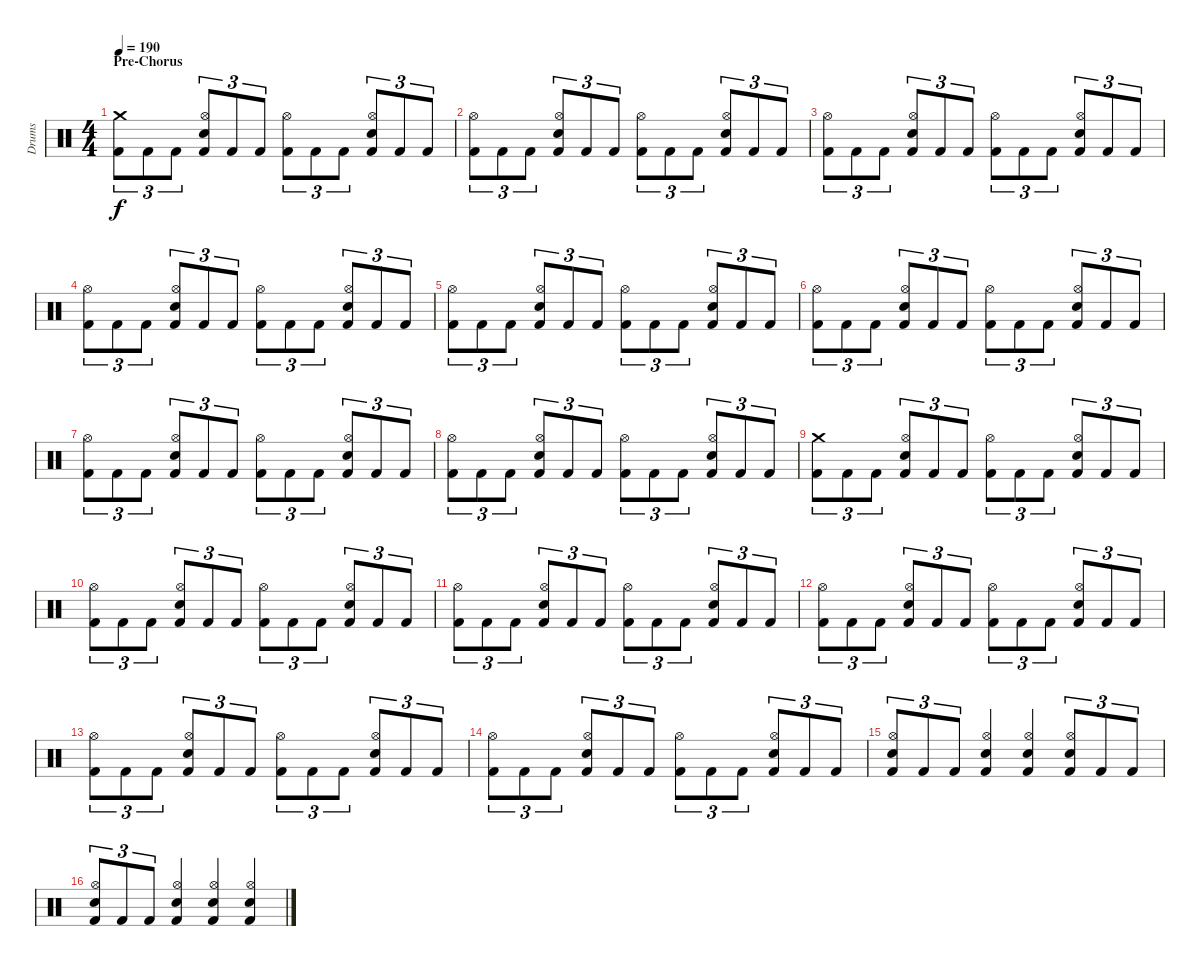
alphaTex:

\track ("Drums" "Drums") {instrument percussion}
\staff {score}
\articulation defaults
\ts (4 4)
\section ("" "Pre-Chorus")
\tempo 190
\clef neutral
\ks c
("Crash medium (hit)" "Kick (hit) 2").8{tu (3 2) dy f} "Kick (hit) 2".8{tu (3 2)} "Kick (hit) 2".8{tu (3 2)} ("Hi-Hat (open)" "Electric Snare (hit)" "Kick (hit) 2").8{tu (3 2)} "Kick (hit) 2".8{tu (3 2)} "Kick (hit) 2".8{tu (3 2)} ("Hi-Hat (open)" "Kick (hit) 2").8{tu (3 2)} "Kick (hit) 2".8{tu (3 2)} "Kick (hit) 2".8{tu (3 2)} ("Hi-Hat (open)" "Electric Snare (hit)" "Kick (hit) 2").8{tu (3 2)} "Kick (hit) 2".8{tu (3 2)} "Kick (hit) 2".8{tu (3 2)} |
("Hi-Hat (open)" "Kick (hit) 2").8{tu (3 2)} "Kick (hit) 2".8{tu (3 2)} "Kick (hit) 2".8{tu (3 2)} ("Hi-Hat (open)" "Electric Snare (hit)" "Kick (hit) 2").8{tu (3 2)} "Kick (hit) 2".8{tu (3 2)} "Kick (hit) 2".8{tu (3 2)} ("Hi-Hat (open)" "Kick (hit) 2").8{tu (3 2)} "Kick (hit) 2".8{tu (3 2)} "Kick (hit) 2".8{tu (3 2)} ("Hi-Hat (open)" "Electric Snare (hit)" "Kick (hit) 2").8{tu (3 2)} "Kick (hit) 2".8{tu (3 2)} "Kick (hit) 2".8{tu (3 2)} |
("Hi-Hat (open)" "Kick (hit) 2").8{tu (3 2)} "Kick (hit) 2".8{tu (3 2)} "Kick (hit) 2".8{tu (3 2)} ("Hi-Hat (open)" "Electric Snare (hit)" "Kick (hit) 2").8{tu (3 2)} "Kick (hit) 2".8{tu (3 2)} "Kick (hit) 2".8{tu (3 2)} ("Hi-Hat (open)" "Kick (hit) 2").8{tu (3 2)} "Kick (hit) 2".8{tu (3 2)} "Kick (hit) 2".8{tu (3 2)} ("Hi-Hat (open)" "Electric Snare (hit)" "Kick (hit) 2").8{tu (3 2)} "Kick (hit) 2".8{tu (3 2)} "Kick (hit) 2".8{tu (3 2)} |
("Hi-Hat (open)" "Kick (hit) 2").8{tu (3 2)} "Kick (hit) 2".8{tu (3 2)} "Kick (hit) 2".8{tu (3 2)} ("Hi-Hat (open)" "Electric Snare (hit)" "Kick (hit) 2").8{tu (3 2)} "Kick (hit) 2".8{tu (3 2)} "Kick (hit) 2".8{tu (3 2)} ("Hi-Hat (open)" "Kick (hit) 2").8{tu (3 2)} "Kick (hit) 2".8{tu (3 2)} "Kick (hit) 2".8{tu (3 2)} ("Hi-Hat (open)" "Electric Snare (hit)" "Kick (hit) 2").8{tu (3 2)} "Kick (hit) 2".8{tu (3 2)} "Kick (hit) 2".8{tu (3 2)} |
("Hi-Hat (open)" "Kick (hit) 2").8{tu (3 2)} "Kick (hit) 2".8{tu (3 2)} "Kick (hit) 2".8{tu (3 2)} ("Hi-Hat (open)" "Electric Snare (hit)" "Kick (hit) 2").8{tu (3 2)} "Kick (hit) 2".8{tu (3 2)} "Kick (hit) 2".8{tu (3 2)} ("Hi-Hat (open)" "Kick (hit) 2").8{tu (3 2)} "Kick (hit) 2".8{tu (3 2)} "Kick (hit) 2".8{tu (3 2)} ("Hi-Hat (open)" "Electric Snare (hit)" "Kick (hit) 2").8{tu (3 2)} "Kick (hit) 2".8{tu (3 2)} "Kick (hit) 2".8{tu (3 2)} |
("Hi-Hat (open)" "Kick (hit) 2").8{tu (3 2)} "Kick (hit) 2".8{tu (3 2)} "Kick (hit) 2".8{tu (3 2)} ("Hi-Hat (open)" "Electric Snare (hit)" "Kick (hit) 2").8{tu (3 2)} "Kick (hit) 2".8{tu (3 2)} "Kick (hit) 2".8{tu (3 2)} ("Hi-Hat (open)" "Kick (hit) 2").8{tu (3 2)} "Kick (hit) 2".8{tu (3 2)} "Kick (hit) 2".8{tu (3 2)} ("Hi-Hat (open)" "Electric Snare (hit)" "Kick (hit) 2").8{tu (3 2)} "Kick (hit) 2".8{tu (3 2)} "Kick (hit) 2".8{tu (3 2)} |
("Hi-Hat (open)" "Kick (hit) 2").8{tu (3 2)} "Kick (hit) 2".8{tu (3 2)} "Kick (hit) 2".8{tu (3 2)} ("Hi-Hat (open)" "Electric Snare (hit)" "Kick (hit) 2").8{tu (3 2)} "Kick (hit) 2".8{tu (3 2)} "Kick (hit) 2".8{tu (3 2)} ("Hi-Hat (open)" "Kick (hit) 2").8{tu (3 2)} "Kick (hit) 2".8{tu (3 2)} "Kick (hit) 2".8{tu (3 2)} ("Hi-Hat (open)" "Electric Snare (hit)" "Kick (hit) 2").8{tu (3 2)} "Kick (hit) 2".8{tu (3 2)} "Kick (hit) 2".8{tu (3 2)} |
("Hi-Hat (open)" "Kick (hit) 2").8{tu (3 2)} "Kick (hit) 2".8{tu (3 2)} "Kick (hit) 2".8{tu (3 2)} ("Hi-Hat (open)" "Electric Snare (hit)" "Kick (hit) 2").8{tu (3 2)} "Kick (hit) 2".8{tu (3 2)} "Kick (hit) 2".8{tu (3 2)} ("Hi-Hat (open)" "Kick (hit) 2").8{tu (3 2)} "Kick (hit) 2".8{tu (3 2)} "Kick (hit) 2".8{tu (3 2)} ("Hi-Hat (open)" "Electric Snare (hit)" "Kick (hit) 2").8{tu (3 2)} "Kick (hit) 2".8{tu (3 2)} "Kick (hit) 2".8{tu (3 2)} |
("Crash medium (hit)" "Kick (hit) 2").8{tu (3 2)} "Kick (hit) 2".8{tu (3 2)} "Kick (hit) 2".8{tu (3 2)} ("Hi-Hat (open)" "Electric Snare (hit)" "Kick (hit) 2").8{tu (3 2)} "Kick (hit) 2".8{tu (3 2)} "Kick (hit) 2".8{tu (3 2)} ("Hi-Hat (open)" "Kick (hit) 2").8{tu (3 2)} "Kick (hit) 2".8{tu (3 2)} "Kick (hit) 2".8{tu (3 2)} ("Hi-Hat (open)" "Electric Snare (hit)" "Kick (hit) 2").8{tu (3 2)} "Kick (hit) 2".8{tu (3 2)} "Kick (hit) 2".8{tu (3 2)} |
("Hi-Hat (open)" "Kick (hit) 2").8{tu (3 2)} "Kick (hit) 2".8{tu (3 2)} "Kick (hit) 2".8{tu (3 2)} ("Hi-Hat (open)" "Electric Snare (hit)" "Kick (hit) 2").8{tu (3 2)} "Kick (hit) 2".8{tu (3 2)} "Kick (hit) 2".8{tu (3 2)} ("Hi-Hat (open)" "Kick (hit) 2").8{tu (3 2)} "Kick (hit) 2".8{tu (3 2)} "Kick (hit) 2".8{tu (3 2)} ("Hi-Hat (open)" "Electric Snare (hit)" "Kick (hit) 2").8{tu (3 2)} "Kick (hit) 2".8{tu (3 2)} "Kick (hit) 2".8{tu (3 2)} |
("Hi-Hat (open)" "Kick (hit) 2").8{tu (3 2)} "Kick (hit) 2".8{tu (3 2)} "Kick (hit) 2".8{tu (3 2)} ("Hi-Hat (open)" "Electric Snare (hit)" "Kick (hit) 2").8{tu (3 2)} "Kick (hit) 2".8{tu (3 2)} "Kick (hit) 2".8{tu (3 2)} ("Hi-Hat (open)" "Kick (hit) 2").8{tu (3 2)} "Kick (hit) 2".8{tu (3 2)} "Kick (hit) 2".8{tu (3 2)} ("Hi-Hat (open)" "Electric Snare (hit)" "Kick (hit) 2").8{tu (3 2)} "Kick (hit) 2".8{tu (3 2)} "Kick (hit) 2".8{tu (3 2)} |
("Hi-Hat (open)" "Kick (hit) 2").8{tu (3 2)} "Kick (hit) 2".8{tu (3 2)} "Kick (hit) 2".8{tu (3 2)} ("Hi-Hat (open)" "Electric Snare (hit)" "Kick (hit) 2").8{tu (3 2)} "Kick (hit) 2".8{tu (3 2)} "Kick (hit) 2".8{tu (3 2)} ("Hi-Hat (open)" "Kick (hit) 2").8{tu (3 2)} "Kick (hit) 2".8{tu (3 2)} "Kick (hit) 2".8{tu (3 2)} ("Hi-Hat (open)" "Electric Snare (hit)" "Kick (hit) 2").8{tu (3 2)} "Kick (hit) 2".8{tu (3 2)} "Kick (hit) 2".8{tu (3 2)} |
("Hi-Hat (open)" "Kick (hit) 2").8{tu (3 2)} "Kick (hit) 2".8{tu (3 2)} "Kick (hit) 2".8{tu (3 2)} ("Hi-Hat (open)" "Electric Snare (hit)" "Kick (hit) 2").8{tu (3 2)} "Kick (hit) 2".8{tu (3 2)} "Kick (hit) 2".8{tu (3 2)} ("Hi-Hat (open)" "Kick (hit) 2").8{tu (3 2)} "Kick (hit) 2".8{tu (3 2)} "Kick (hit) 2".8{tu (3 2)} ("Hi-Hat (open)" "Electric Snare (hit)" "Kick (hit) 2").8{tu (3 2)} "Kick (hit) 2".8{tu (3 2)} "Kick (hit) 2".8{tu (3 2)} |
("Hi-Hat (open)" "Kick (hit) 2").8{tu (3 2)} "Kick (hit) 2".8{tu (3 2)} "Kick (hit) 2".8{tu (3 2)} ("Hi-Hat (open)" "Electric Snare (hit)" "Kick (hit) 2").8{tu (3 2)} "Kick (hit) 2".8{tu (3 2)} "Kick (hit) 2".8{tu (3 2)} ("Hi-Hat (open)" "Kick (hit) 2").8{tu (3 2)} "Kick (hit) 2".8{tu (3 2)} "Kick (hit) 2".8{tu (3 2)} ("Hi-Hat (open)" "Electric Snare (hit)" "Kick (hit) 2").8{tu (3 2)} "Kick (hit) 2".8{tu (3 2)} "Kick (hit) 2".8{tu (3 2)} |
("Hi-Hat (open)" "Electric Snare (hit)" "Kick (hit) 2").8{tu (3 2)} "Kick (hit) 2".8{tu (3 2)} "Kick (hit) 2".8{tu (3 2)} ("Hi-Hat (open)" "Electric Snare (hit)" "Kick (hit) 2").4 ("Hi-Hat (open)" "Electric Snare (hit)" "Kick (hit) 2").4 ("Hi-Hat (open)" "Electric Snare (hit)" "Kick (hit) 2").8{tu (3 2)} "Kick (hit) 2".8{tu (3 2)} "Kick (hit) 2".8{tu (3 2)} |
("Hi-Hat (open)" "Electric Snare (hit)" "Kick (hit) 2").8{tu (3 2)} "Kick (hit) 2".8{tu (3 2)} "Kick (hit) 2".8{tu (3 2)} ("Hi-Hat (open)" "Electric Snare (hit)" "Kick (hit) 2").4 ("Hi-Hat (open)" "Electric Snare (hit)" "Kick (hit) 2").4 ("Hi-Hat (open)" "Electric Snare (hit)" "Kick (hit) 2").4
